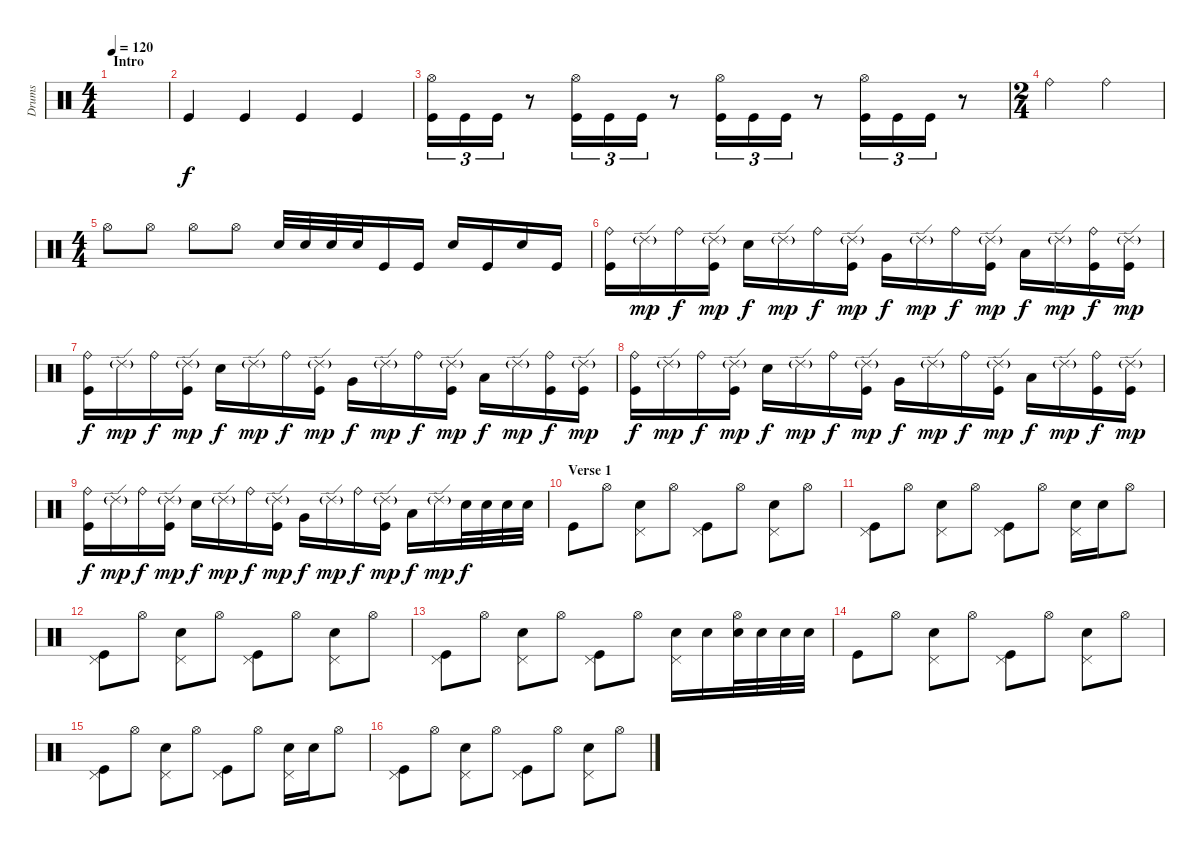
\track ("Drums" "Drums") {instrument percussion}
\staff {score}
\articulation defaults
\ts (4 4)
\section ("" "Intro")
\tempo 120
\clef neutral
\ks c
|
"Kick (hit)".4 "Kick (hit)".4 "Kick (hit)".4 "Kick (hit)".4 |
("Hi-Hat (open)" "Kick (hit)").16{tu (3 2)} "Kick (hit)".16{tu (3 2)} "Kick (hit)".16{tu (3 2)} r.8 ("Hi-Hat (open)" "Kick (hit)").16{tu (3 2)} "Kick (hit)".16{tu (3 2)} "Kick (hit)".16{tu (3 2)} r.8 ("Hi-Hat (open)" "Kick (hit)").16{tu (3 2)} "Kick (hit)".16{tu (3 2)} "Kick (hit)".16{tu (3 2)} r.8 ("Hi-Hat (open)" "Kick (hit)").16{tu (3 2)} "Kick (hit)".16{tu (3 2)} "Kick (hit)".16{tu (3 2)} r.8 |
\ts (2 4)
"Ride (bell)".4 "Ride (bell)".4 |
\ts (4 4)
"Hi-Hat (open)".8 "Hi-Hat (open)".8 "Hi-Hat (open)".8 "Hi-Hat (open)".8 "Electric Snare (hit)".32 "Electric Snare (hit)".32 "Electric Snare (hit)".32 "Electric Snare (hit)".32 "Kick (hit)".16 "Kick (hit)".16 "Electric Snare (hit)".16 "Kick (hit)".16 "Electric Snare (hit)".16 "Kick (hit)".16 |
("Ride (bell)" "Kick (hit)").16 "Ride (edge) 2"{g}.16{dy mp} "Ride (bell)".16{dy f} ("Ride (edge) 2"{g} "Kick (hit)").16{dy mp} "Electric Snare (hit)".16{dy f} "Ride (edge) 2"{g}.16{dy mp} "Ride (bell)".16{dy f} ("Ride (edge) 2"{g} "Kick (hit)").16{dy mp} "Very Low Tom (hit)".16{dy f} "Ride (edge) 2"{g}.16{dy mp} "Ride (bell)".16{dy f} ("Ride (edge) 2"{g} "Kick (hit)").16{dy mp} "Low Floor Tom (hit)".16{dy f} "Ride (edge) 2"{g}.16{dy mp} ("Ride (bell)" "Kick (hit)").16{dy f} ("Ride (edge) 2"{g} "Kick (hit)").16{dy mp} |
("Ride (bell)" "Kick (hit)").16{dy f} "Ride (edge) 2"{g}.16{dy mp} "Ride (bell)".16{dy f} ("Ride (edge) 2"{g} "Kick (hit)").16{dy mp} "Electric Snare (hit)".16{dy f} "Ride (edge) 2"{g}.16{dy mp} "Ride (bell)".16{dy f} ("Ride (edge) 2"{g} "Kick (hit)").16{dy mp} "Very Low Tom (hit)".16{dy f} "Ride (edge) 2"{g}.16{dy mp} "Ride (bell)".16{dy f} ("Ride (edge) 2"{g} "Kick (hit)").16{dy mp} "Low Floor Tom (hit)".16{dy f} "Ride (edge) 2"{g}.16{dy mp} ("Ride (bell)" "Kick (hit)").16{dy f} ("Ride (edge) 2"{g} "Kick (hit)").16{dy mp} |
("Ride (bell)" "Kick (hit)").16{dy f} "Ride (edge) 2"{g}.16{dy mp} "Ride (bell)".16{dy f} ("Ride (edge) 2"{g} "Kick (hit)").16{dy mp} "Electric Snare (hit)".16{dy f} "Ride (edge) 2"{g}.16{dy mp} "Ride (bell)".16{dy f} ("Ride (edge) 2"{g} "Kick (hit)").16{dy mp} "Very Low Tom (hit)".16{dy f} "Ride (edge) 2"{g}.16{dy mp} "Ride (bell)".16{dy f} ("Ride (edge) 2"{g} "Kick (hit)").16{dy mp} "Low Floor Tom (hit)".16{dy f} "Ride (edge) 2"{g}.16{dy mp} ("Ride (bell)" "Kick (hit)").16{dy f} ("Ride (edge) 2"{g} "Kick (hit)").16{dy mp} |
("Ride (bell)" "Kick (hit)").16{dy f} "Ride (edge) 2"{g}.16{dy mp} "Ride (bell)".16{dy f} ("Ride (edge) 2"{g} "Kick (hit)").16{dy mp} "Electric Snare (hit)".16{dy f} "Ride (edge) 2"{g}.16{dy mp} "Ride (bell)".16{dy f} ("Ride (edge) 2"{g} "Kick (hit)").16{dy mp} "Very Low Tom (hit)".16{dy f} "Ride (edge) 2"{g}.16{dy mp} "Ride (bell)".16{dy f} ("Ride (edge) 2"{g} "Kick (hit)").16{dy mp} "Low Floor Tom (hit)".16{dy f} "Ride (edge) 2"{g}.16{dy mp} "Electric Snare (hit)".32{dy f} "Electric Snare (hit)".32 "Electric Snare (hit)".32 "Electric Snare (hit)".32 |
\section ("" "Verse 1")
"Kick (hit)".8 "Hi-Hat (open)".8 ("Pedal Hi-Hat (hit)" "Electric Snare (hit)").8 "Hi-Hat (open)".8 ("Pedal Hi-Hat (hit)" "Kick (hit)").8 "Hi-Hat (open)".8 ("Pedal Hi-Hat (hit)" "Electric Snare (hit)").8 "Hi-Hat (open)".8 |
("Pedal Hi-Hat (hit)" "Kick (hit)").8 "Hi-Hat (open)".8 ("Pedal Hi-Hat (hit)" "Electric Snare (hit)").8 "Hi-Hat (open)".8 ("Pedal Hi-Hat (hit)" "Kick (hit)").8 "Hi-Hat (open)".8 ("Pedal Hi-Hat (hit)" "Electric Snare (hit)").16 "Electric Snare (hit)".16 "Hi-Hat (open)".8 |
("Pedal Hi-Hat (hit)" "Kick (hit)").8 "Hi-Hat (open)".8 ("Pedal Hi-Hat (hit)" "Electric Snare (hit)").8 "Hi-Hat (open)".8 ("Pedal Hi-Hat (hit)" "Kick (hit)").8 "Hi-Hat (open)".8 ("Pedal Hi-Hat (hit)" "Electric Snare (hit)").8 "Hi-Hat (open)".8 |
("Pedal Hi-Hat (hit)" "Kick (hit)").8 "Hi-Hat (open)".8 ("Pedal Hi-Hat (hit)" "Electric Snare (hit)").8 "Hi-Hat (open)".8 ("Pedal Hi-Hat (hit)" "Kick (hit)").8 "Hi-Hat (open)".8 ("Pedal Hi-Hat (hit)" "Electric Snare (hit)").16 "Electric Snare (hit)".16 ("Hi-Hat (open)" "Electric Snare (hit)").32 "Electric Snare (hit)".32 "Electric Snare (hit)".32 "Electric Snare (hit)".32 |
"Kick (hit)".8 "Hi-Hat (open)".8 ("Pedal Hi-Hat (hit)" "Electric Snare (hit)").8 "Hi-Hat (open)".8 ("Pedal Hi-Hat (hit)" "Kick (hit)").8 "Hi-Hat (open)".8 ("Pedal Hi-Hat (hit)" "Electric Snare (hit)").8 "Hi-Hat (open)".8 |
("Pedal Hi-Hat (hit)" "Kick (hit)").8 "Hi-Hat (open)".8 ("Pedal Hi-Hat (hit)" "Electric Snare (hit)").8 "Hi-Hat (open)".8 ("Pedal Hi-Hat (hit)" "Kick (hit)").8 "Hi-Hat (open)".8 ("Pedal Hi-Hat (hit)" "Electric Snare (hit)").16 "Electric Snare (hit)".16 "Hi-Hat (open)".8 |
("Pedal Hi-Hat (hit)" "Kick (hit)").8 "Hi-Hat (open)".8 ("Pedal Hi-Hat (hit)" "Electric Snare (hit)").8 "Hi-Hat (open)".8 ("Pedal Hi-Hat (hit)" "Kick (hit)").8 "Hi-Hat (open)".8 ("Pedal Hi-Hat (hit)" "Electric Snare (hit)").8 "Hi-Hat (open)".8
